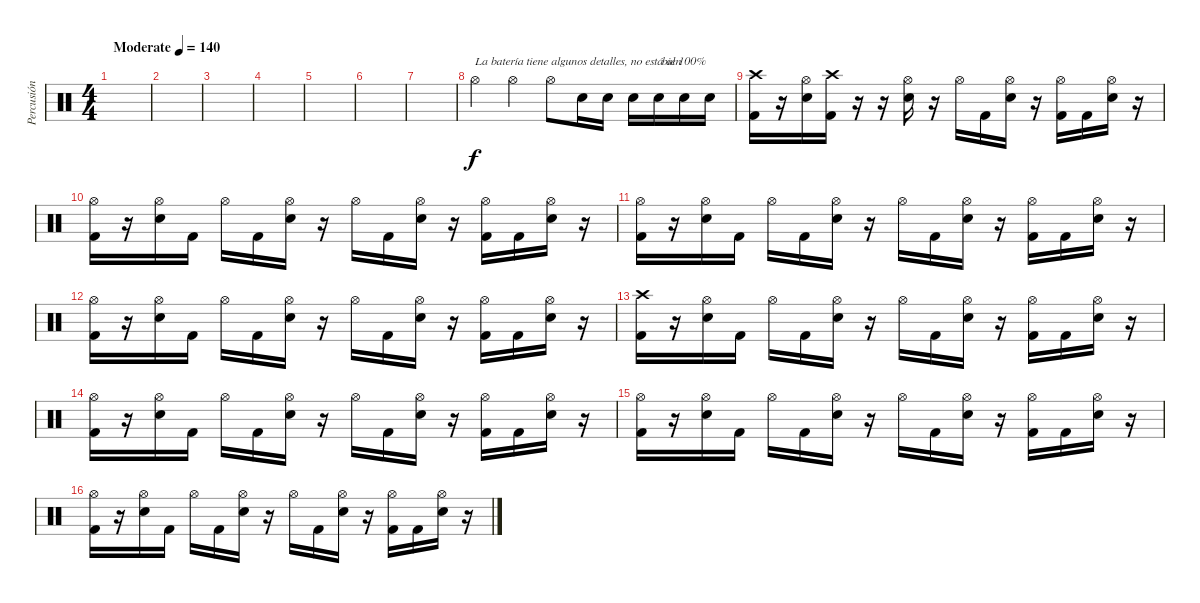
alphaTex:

\track ("Percusión" "Percusión") {instrument percussion}
\staff {score}
\articulation defaults
\ts (4 4)
\tempo (140 "Moderate")
\clef neutral
\ks c
|
|
|
|
|
|
|
"Hi-Hat (open)".4{txt "La batería tiene algunos detalles, no está al 100%"} "Hi-Hat (open)".4 "Hi-Hat (open)".8 "Snare (hit) 2".16 "Snare (hit) 2".16 "Snare (hit) 2".16 "Snare (hit) 2".16{txt " bien"} "Snare (hit) 2".16 "Snare (hit) 2".16 |
("Crash high (hit)" "Kick (hit) 2").16 r.16 ("Hi-Hat (open)" "Snare (hit) 2").16 ("Crash high (hit)" "Kick (hit) 2").16 r.16 r.16 ("Hi-Hat (open)" "Snare (hit) 2").16 r.16 "Hi-Hat (open)".16 "Kick (hit) 2".16 ("Hi-Hat (open)" "Snare (hit) 2").16 r.16 ("Hi-Hat (open)" "Kick (hit) 2").16 "Kick (hit) 2".16 ("Hi-Hat (open)" "Snare (hit) 2").16 r.16 |
("Hi-Hat (open)" "Kick (hit) 2").16 r.16 ("Hi-Hat (open)" "Snare (hit) 2").16 "Kick (hit) 2".16 "Hi-Hat (open)".16 "Kick (hit) 2".16 ("Hi-Hat (open)" "Snare (hit) 2").16 r.16 "Hi-Hat (open)".16 "Kick (hit) 2".16 ("Hi-Hat (open)" "Snare (hit) 2").16 r.16 ("Hi-Hat (open)" "Kick (hit) 2").16 "Kick (hit) 2".16 ("Hi-Hat (open)" "Snare (hit) 2").16 r.16 |
("Hi-Hat (open)" "Kick (hit) 2").16 r.16 ("Hi-Hat (open)" "Snare (hit) 2").16 "Kick (hit) 2".16 "Hi-Hat (open)".16 "Kick (hit) 2".16 ("Hi-Hat (open)" "Snare (hit) 2").16 r.16 "Hi-Hat (open)".16 "Kick (hit) 2".16 ("Hi-Hat (open)" "Snare (hit) 2").16 r.16 ("Hi-Hat (open)" "Kick (hit) 2").16 "Kick (hit) 2".16 ("Hi-Hat (open)" "Snare (hit) 2").16 r.16 |
("Hi-Hat (open)" "Kick (hit) 2").16 r.16 ("Hi-Hat (open)" "Snare (hit) 2").16 "Kick (hit) 2".16 "Hi-Hat (open)".16 "Kick (hit) 2".16 ("Hi-Hat (open)" "Snare (hit) 2").16 r.16 "Hi-Hat (open)".16 "Kick (hit) 2".16 ("Hi-Hat (open)" "Snare (hit) 2").16 r.16 ("Hi-Hat (open)" "Kick (hit) 2").16 "Kick (hit) 2".16 ("Hi-Hat (open)" "Snare (hit) 2").16 r.16 |
("Crash high (hit)" "Kick (hit) 2").16 r.16 ("Hi-Hat (open)" "Snare (hit) 2").16 "Kick (hit) 2".16 "Hi-Hat (open)".16 "Kick (hit) 2".16 ("Hi-Hat (open)" "Snare (hit) 2").16 r.16 "Hi-Hat (open)".16 "Kick (hit) 2".16 ("Hi-Hat (open)" "Snare (hit) 2").16 r.16 ("Hi-Hat (open)" "Kick (hit) 2").16 "Kick (hit) 2".16 ("Hi-Hat (open)" "Snare (hit) 2").16 r.16 |
("Hi-Hat (open)" "Kick (hit) 2").16 r.16 ("Hi-Hat (open)" "Snare (hit) 2").16 "Kick (hit) 2".16 "Hi-Hat (open)".16 "Kick (hit) 2".16 ("Hi-Hat (open)" "Snare (hit) 2").16 r.16 "Hi-Hat (open)".16 "Kick (hit) 2".16 ("Hi-Hat (open)" "Snare (hit) 2").16 r.16 ("Hi-Hat (open)" "Kick (hit) 2").16 "Kick (hit) 2".16 ("Hi-Hat (open)" "Snare (hit) 2").16 r.16 |
("Hi-Hat (open)" "Kick (hit) 2").16 r.16 ("Hi-Hat (open)" "Snare (hit) 2").16 "Kick (hit) 2".16 "Hi-Hat (open)".16 "Kick (hit) 2".16 ("Hi-Hat (open)" "Snare (hit) 2").16 r.16 "Hi-Hat (open)".16 "Kick (hit) 2".16 ("Hi-Hat (open)" "Snare (hit) 2").16 r.16 ("Hi-Hat (open)" "Kick (hit) 2").16 "Kick (hit) 2".16 ("Hi-Hat (open)" "Snare (hit) 2").16 r.16 |
("Hi-Hat (open)" "Kick (hit) 2").16 r.16 ("Hi-Hat (open)" "Snare (hit) 2").16 "Kick (hit) 2".16 "Hi-Hat (open)".16 "Kick (hit) 2".16 ("Hi-Hat (open)" "Snare (hit) 2").16 r.16 "Hi-Hat (open)".16 "Kick (hit) 2".16 ("Hi-Hat (open)" "Snare (hit) 2").16 r.16 ("Hi-Hat (open)" "Kick (hit) 2").16 "Kick (hit) 2".16 ("Hi-Hat (open)" "Snare (hit) 2").16 r.16
